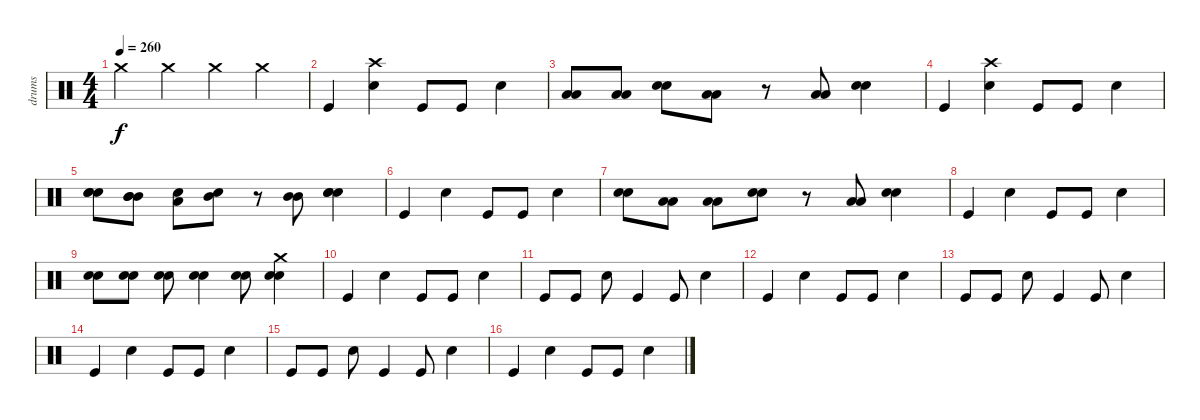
\track ("drums" "drums") {instrument percussion}
\staff {score}
\articulation defaults
\ts (4 4)
\tempo 260
\clef neutral
\ks c "Crash medium (hit)".4{dy f} "Crash medium (hit)".4 "Crash medium (hit)".4 "Crash medium (hit)".4
|
"Kick (hit)".4 ("Crash high (hit)" "Snare (hit) 2").4 "Kick (hit)".8 "Kick (hit)".8 "Snare (hit) 2".4 |
("Low Floor Tom (hit)" "Low Floor Tom (hit)").8 ("Low Floor Tom (hit)" "Low Floor Tom (hit)").8 ("Electric Snare (hit)" "Snare (hit) 2").8 ("Low Floor Tom (hit)" "Low Floor Tom (hit)").8 r.8 ("Low Floor Tom (hit)" "Low Floor Tom (hit)").8 ("Electric Snare (hit)" "Snare (hit) 2").4 |
"Kick (hit)".4 ("Crash high (hit)" "Snare (hit) 2").4 "Kick (hit)".8 "Kick (hit)".8 "Snare (hit) 2".4 |
("Electric Snare (hit)" "Electric Snare (hit)" "Electric Snare (hit)").8 ("Mid Tom (hit)" "Mid Tom (hit)" "Mid Tom (hit)").8 ("Low Tom (hit)" "Electric Snare (hit)").8 ("Mid Tom (hit)" "Electric Snare (hit)").8 r.8 ("Mid Tom (hit)" "Mid Tom (hit)").8 ("Electric Snare (hit)" "Electric Snare (hit)" "Electric Snare (hit)").4 |
"Kick (hit)".4 "Snare (hit) 2".4 "Kick (hit)".8 "Kick (hit)".8 "Snare (hit) 2".4 |
("Snare (hit) 2" "Electric Snare (hit)").8 ("Low Floor Tom (hit)" "Low Floor Tom (hit)").8 ("Low Floor Tom (hit)" "Low Floor Tom (hit)").8 ("Snare (hit) 2" "Electric Snare (hit)").8 r.8 ("Low Floor Tom (hit)" "Low Floor Tom (hit)").8 ("Snare (hit) 2" "Electric Snare (hit)").4 |
"Kick (hit)".4 "Snare (hit) 2".4 "Kick (hit)".8 "Kick (hit)".8 "Snare (hit) 2".4 |
("Electric Snare (hit)" "Electric Snare (hit)").8 ("Electric Snare (hit)" "Electric Snare (hit)").8 ("Electric Snare (hit)" "Electric Snare (hit)").8 ("Electric Snare (hit)" "Electric Snare (hit)").4 ("Electric Snare (hit)" "Electric Snare (hit)").8 ("Crash medium (hit)" "Electric Snare (hit)" "Electric Snare (hit)").4 |
"Kick (hit)".4 "Snare (hit) 2".4 "Kick (hit)".8 "Kick (hit)".8 "Snare (hit) 2".4 |
"Kick (hit)".8 "Kick (hit)".8 "Snare (hit) 2".8 "Kick (hit)".4 "Kick (hit)".8 "Snare (hit) 2".4 |
"Kick (hit)".4 "Snare (hit) 2".4 "Kick (hit)".8 "Kick (hit)".8 "Snare (hit) 2".4 |
"Kick (hit)".8 "Kick (hit)".8 "Snare (hit) 2".8 "Kick (hit)".4 "Kick (hit)".8 "Snare (hit) 2".4 |
"Kick (hit)".4 "Snare (hit) 2".4 "Kick (hit)".8 "Kick (hit)".8 "Snare (hit) 2".4 |
"Kick (hit)".8 "Kick (hit)".8 "Snare (hit) 2".8 "Kick (hit)".4 "Kick (hit)".8 "Snare (hit) 2".4 |
"Kick (hit)".4 "Snare (hit) 2".4 "Kick (hit)".8 "Kick (hit)".8 "Snare (hit) 2".4
